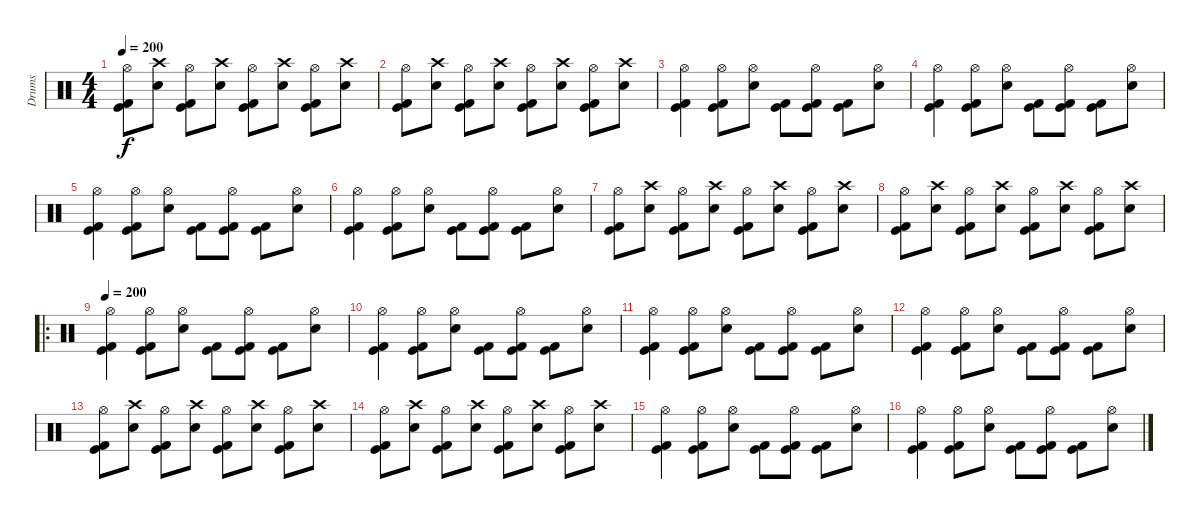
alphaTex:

\track ("Drums" "Drums") {instrument percussion}
\staff {score}
\articulation defaults
\ts (4 4)
\tempo 200
\clef neutral
\ks c
("Hi-Hat (open)" "Kick (hit)" "Kick (hit) 2").8{dy f} ("Electric Snare (hit)" "Crash high (hit)").8 ("Hi-Hat (open)" "Kick (hit)" "Kick (hit) 2").8 ("Electric Snare (hit)" "Crash high (hit)").8 ("Hi-Hat (open)" "Kick (hit)" "Kick (hit) 2").8 ("Electric Snare (hit)" "Crash high (hit)").8 ("Hi-Hat (open)" "Kick (hit)" "Kick (hit) 2").8 ("Electric Snare (hit)" "Crash high (hit)").8 |
("Hi-Hat (open)" "Kick (hit)" "Kick (hit) 2").8 ("Electric Snare (hit)" "Crash high (hit)").8 ("Hi-Hat (open)" "Kick (hit)" "Kick (hit) 2").8 ("Electric Snare (hit)" "Crash high (hit)").8 ("Hi-Hat (open)" "Kick (hit)" "Kick (hit) 2").8 ("Electric Snare (hit)" "Crash high (hit)").8 ("Hi-Hat (open)" "Kick (hit)" "Kick (hit) 2").8 ("Electric Snare (hit)" "Crash high (hit)").8 |
("Hi-Hat (open)" "Kick (hit) 2" "Kick (hit)").4 ("Hi-Hat (open)" "Kick (hit) 2" "Kick (hit)").8 ("Hi-Hat (open)" "Electric Snare (hit)").8 ("Kick (hit) 2" "Kick (hit)").8 ("Hi-Hat (open)" "Kick (hit) 2" "Kick (hit)").8 ("Kick (hit) 2" "Kick (hit)").8 ("Hi-Hat (open)" "Electric Snare (hit)").8 |
("Hi-Hat (open)" "Kick (hit) 2" "Kick (hit)").4 ("Hi-Hat (open)" "Kick (hit) 2" "Kick (hit)").8 ("Hi-Hat (open)" "Electric Snare (hit)").8 ("Kick (hit) 2" "Kick (hit)").8 ("Hi-Hat (open)" "Kick (hit) 2" "Kick (hit)").8 ("Kick (hit) 2" "Kick (hit)").8 ("Hi-Hat (open)" "Electric Snare (hit)").8 |
("Hi-Hat (open)" "Kick (hit) 2" "Kick (hit)").4 ("Hi-Hat (open)" "Kick (hit) 2" "Kick (hit)").8 ("Hi-Hat (open)" "Electric Snare (hit)").8 ("Kick (hit) 2" "Kick (hit)").8 ("Hi-Hat (open)" "Kick (hit) 2" "Kick (hit)").8 ("Kick (hit) 2" "Kick (hit)").8 ("Hi-Hat (open)" "Electric Snare (hit)").8 |
("Hi-Hat (open)" "Kick (hit) 2" "Kick (hit)").4 ("Hi-Hat (open)" "Kick (hit) 2" "Kick (hit)").8 ("Hi-Hat (open)" "Electric Snare (hit)").8 ("Kick (hit) 2" "Kick (hit)").8 ("Hi-Hat (open)" "Kick (hit) 2" "Kick (hit)").8 ("Kick (hit) 2" "Kick (hit)").8 ("Hi-Hat (open)" "Electric Snare (hit)").8 |
("Hi-Hat (open)" "Kick (hit)" "Kick (hit) 2").8 ("Electric Snare (hit)" "Crash high (hit)").8 ("Hi-Hat (open)" "Kick (hit)" "Kick (hit) 2").8 ("Electric Snare (hit)" "Crash high (hit)").8 ("Hi-Hat (open)" "Kick (hit)" "Kick (hit) 2").8 ("Electric Snare (hit)" "Crash high (hit)").8 ("Hi-Hat (open)" "Kick (hit)" "Kick (hit) 2").8 ("Electric Snare (hit)" "Crash high (hit)").8 |
("Hi-Hat (open)" "Kick (hit)" "Kick (hit) 2").8 ("Electric Snare (hit)" "Crash high (hit)").8 ("Hi-Hat (open)" "Kick (hit)" "Kick (hit) 2").8 ("Electric Snare (hit)" "Crash high (hit)").8 ("Hi-Hat (open)" "Kick (hit)" "Kick (hit) 2").8 ("Electric Snare (hit)" "Crash high (hit)").8 ("Hi-Hat (open)" "Kick (hit)" "Kick (hit) 2").8 ("Electric Snare (hit)" "Crash high (hit)").8 |
\ro
\tempo 200
("Hi-Hat (open)" "Kick (hit) 2" "Kick (hit)").4 ("Hi-Hat (open)" "Kick (hit) 2" "Kick (hit)").8 ("Hi-Hat (open)" "Electric Snare (hit)").8 ("Kick (hit) 2" "Kick (hit)").8 ("Hi-Hat (open)" "Kick (hit) 2" "Kick (hit)").8 ("Kick (hit) 2" "Kick (hit)").8 ("Hi-Hat (open)" "Electric Snare (hit)").8 |
("Hi-Hat (open)" "Kick (hit) 2" "Kick (hit)").4 ("Hi-Hat (open)" "Kick (hit) 2" "Kick (hit)").8 ("Hi-Hat (open)" "Electric Snare (hit)").8 ("Kick (hit) 2" "Kick (hit)").8 ("Hi-Hat (open)" "Kick (hit) 2" "Kick (hit)").8 ("Kick (hit) 2" "Kick (hit)").8 ("Hi-Hat (open)" "Electric Snare (hit)").8 |
("Hi-Hat (open)" "Kick (hit) 2" "Kick (hit)").4 ("Hi-Hat (open)" "Kick (hit) 2" "Kick (hit)").8 ("Hi-Hat (open)" "Electric Snare (hit)").8 ("Kick (hit) 2" "Kick (hit)").8 ("Hi-Hat (open)" "Kick (hit) 2" "Kick (hit)").8 ("Kick (hit) 2" "Kick (hit)").8 ("Hi-Hat (open)" "Electric Snare (hit)").8 |
("Hi-Hat (open)" "Kick (hit) 2" "Kick (hit)").4 ("Hi-Hat (open)" "Kick (hit) 2" "Kick (hit)").8 ("Hi-Hat (open)" "Electric Snare (hit)").8 ("Kick (hit) 2" "Kick (hit)").8 ("Hi-Hat (open)" "Kick (hit) 2" "Kick (hit)").8 ("Kick (hit) 2" "Kick (hit)").8 ("Hi-Hat (open)" "Electric Snare (hit)").8 |
("Hi-Hat (open)" "Kick (hit)" "Kick (hit) 2").8 ("Electric Snare (hit)" "Crash high (hit)").8 ("Hi-Hat (open)" "Kick (hit)" "Kick (hit) 2").8 ("Electric Snare (hit)" "Crash high (hit)").8 ("Hi-Hat (open)" "Kick (hit)" "Kick (hit) 2").8 ("Electric Snare (hit)" "Crash high (hit)").8 ("Hi-Hat (open)" "Kick (hit)" "Kick (hit) 2").8 ("Electric Snare (hit)" "Crash high (hit)").8 |
("Hi-Hat (open)" "Kick (hit)" "Kick (hit) 2").8 ("Electric Snare (hit)" "Crash high (hit)").8 ("Hi-Hat (open)" "Kick (hit)" "Kick (hit) 2").8 ("Electric Snare (hit)" "Crash high (hit)").8 ("Hi-Hat (open)" "Kick (hit)" "Kick (hit) 2").8 ("Electric Snare (hit)" "Crash high (hit)").8 ("Hi-Hat (open)" "Kick (hit)" "Kick (hit) 2").8 ("Electric Snare (hit)" "Crash high (hit)").8 |
("Hi-Hat (open)" "Kick (hit) 2" "Kick (hit)").4 ("Hi-Hat (open)" "Kick (hit) 2" "Kick (hit)").8 ("Hi-Hat (open)" "Electric Snare (hit)").8 ("Kick (hit) 2" "Kick (hit)").8 ("Hi-Hat (open)" "Kick (hit) 2" "Kick (hit)").8 ("Kick (hit) 2" "Kick (hit)").8 ("Hi-Hat (open)" "Electric Snare (hit)").8 |
("Hi-Hat (open)" "Kick (hit) 2" "Kick (hit)").4 ("Hi-Hat (open)" "Kick (hit) 2" "Kick (hit)").8 ("Hi-Hat (open)" "Electric Snare (hit)").8 ("Kick (hit) 2" "Kick (hit)").8 ("Hi-Hat (open)" "Kick (hit) 2" "Kick (hit)").8 ("Kick (hit) 2" "Kick (hit)").8 ("Hi-Hat (open)" "Electric Snare (hit)").8
